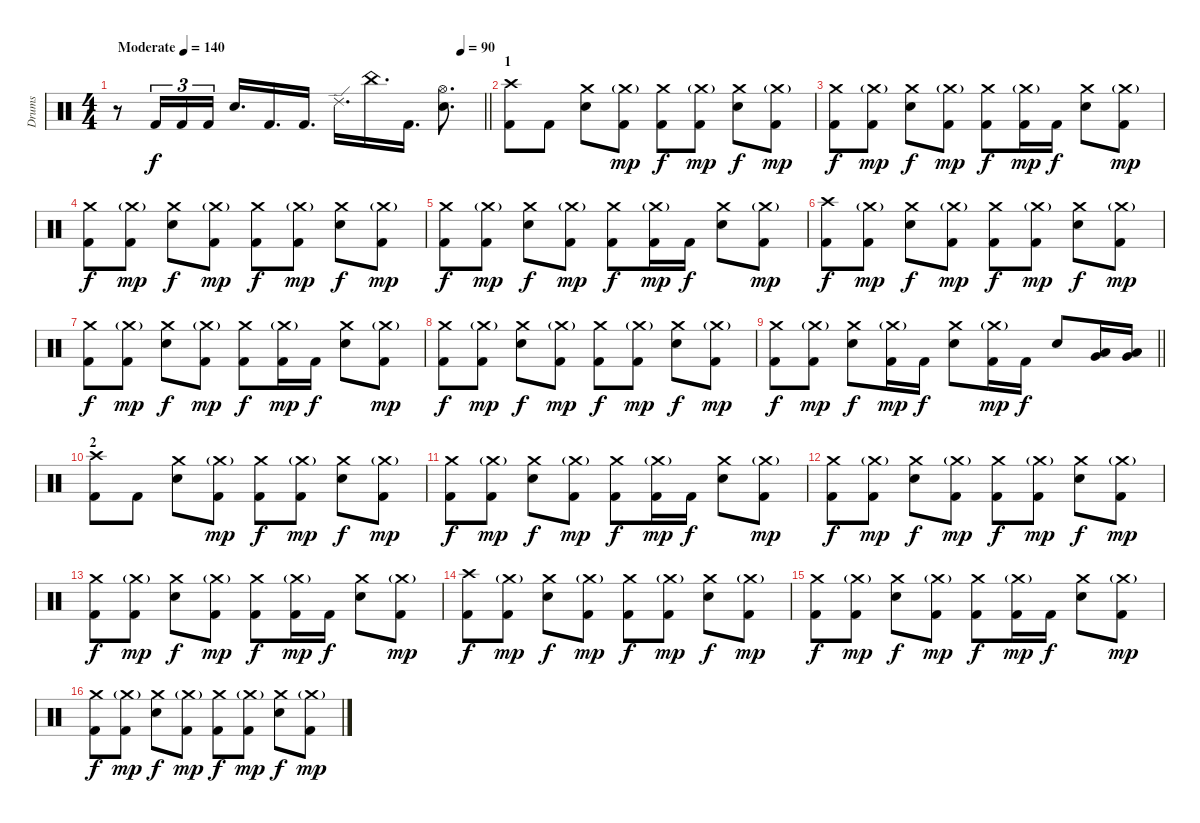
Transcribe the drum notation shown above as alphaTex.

\track ("Drums" "Drums") {instrument percussion}
\staff {score}
\articulation defaults
\ts (4 4)
\tempo (140 "Moderate")
\tempo (90 0.9375)
\tempo (140 "Moderate")
\clef neutral
\barLineRight lightlight
\ks c
r.8{dy f} "Kick (hit) 2".16{tu (3 2)} "Kick (hit) 2".16{tu (3 2)} "Kick (hit) 2".16{tu (3 2)} "Electric Snare (hit)".16{d} "Kick (hit) 2".16{d} "Kick (hit) 2".16{d} "Ride (edge) 2".16{d} "China (hit)".16{d} "Kick (hit) 2".16{d} ("Hi-Hat (open)" "Electric Snare (hit)").8{d} |
\section ("" "1")
("Crash high (hit)" "Kick (hit) 2").8 "Kick (hit) 2".8 ("Crash medium (hit)" "Electric Snare (hit)").8 ("Crash medium (hit)"{g} "Kick (hit) 2").8{dy mp} ("Crash medium (hit)" "Kick (hit) 2").8{dy f} ("Crash medium (hit)"{g} "Kick (hit) 2").8{dy mp} ("Crash medium (hit)" "Electric Snare (hit)").8{dy f} ("Crash medium (hit)"{g} "Kick (hit) 2").8{dy mp} |
("Crash medium (hit)" "Kick (hit) 2").8{dy f} ("Crash medium (hit)"{g} "Kick (hit) 2").8{dy mp} ("Crash medium (hit)" "Electric Snare (hit)").8{dy f} ("Crash medium (hit)"{g} "Kick (hit) 2").8{dy mp} ("Crash medium (hit)" "Kick (hit) 2").8{dy f} ("Crash medium (hit)"{g} "Kick (hit) 2").16{dy mp} "Kick (hit) 2".16{dy f} ("Crash medium (hit)" "Electric Snare (hit)").8 ("Crash medium (hit)"{g} "Kick (hit) 2").8{dy mp} |
("Crash medium (hit)" "Kick (hit) 2").8{dy f} ("Crash medium (hit)"{g} "Kick (hit) 2").8{dy mp} ("Crash medium (hit)" "Electric Snare (hit)").8{dy f} ("Crash medium (hit)"{g} "Kick (hit) 2").8{dy mp} ("Crash medium (hit)" "Kick (hit) 2").8{dy f} ("Crash medium (hit)"{g} "Kick (hit) 2").8{dy mp} ("Crash medium (hit)" "Electric Snare (hit)").8{dy f} ("Crash medium (hit)"{g} "Kick (hit) 2").8{dy mp} |
("Crash medium (hit)" "Kick (hit) 2").8{dy f} ("Crash medium (hit)"{g} "Kick (hit) 2").8{dy mp} ("Crash medium (hit)" "Electric Snare (hit)").8{dy f} ("Crash medium (hit)"{g} "Kick (hit) 2").8{dy mp} ("Crash medium (hit)" "Kick (hit) 2").8{dy f} ("Crash medium (hit)"{g} "Kick (hit) 2").16{dy mp} "Kick (hit) 2".16{dy f} ("Crash medium (hit)" "Electric Snare (hit)").8 ("Crash medium (hit)"{g} "Kick (hit) 2").8{dy mp} |
("Crash high (hit)" "Kick (hit) 2").8{dy f} ("Crash medium (hit)"{g} "Kick (hit) 2").8{dy mp} ("Crash medium (hit)" "Electric Snare (hit)").8{dy f} ("Crash medium (hit)"{g} "Kick (hit) 2").8{dy mp} ("Crash medium (hit)" "Kick (hit) 2").8{dy f} ("Crash medium (hit)"{g} "Kick (hit) 2").8{dy mp} ("Crash medium (hit)" "Electric Snare (hit)").8{dy f} ("Crash medium (hit)"{g} "Kick (hit) 2").8{dy mp} |
("Crash medium (hit)" "Kick (hit) 2").8{dy f} ("Crash medium (hit)"{g} "Kick (hit) 2").8{dy mp} ("Crash medium (hit)" "Electric Snare (hit)").8{dy f} ("Crash medium (hit)"{g} "Kick (hit) 2").8{dy mp} ("Crash medium (hit)" "Kick (hit) 2").8{dy f} ("Crash medium (hit)"{g} "Kick (hit) 2").16{dy mp} "Kick (hit) 2".16{dy f} ("Crash medium (hit)" "Electric Snare (hit)").8 ("Crash medium (hit)"{g} "Kick (hit) 2").8{dy mp} |
("Crash medium (hit)" "Kick (hit) 2").8{dy f} ("Crash medium (hit)"{g} "Kick (hit) 2").8{dy mp} ("Crash medium (hit)" "Electric Snare (hit)").8{dy f} ("Crash medium (hit)"{g} "Kick (hit) 2").8{dy mp} ("Crash medium (hit)" "Kick (hit) 2").8{dy f} ("Crash medium (hit)"{g} "Kick (hit) 2").8{dy mp} ("Crash medium (hit)" "Electric Snare (hit)").8{dy f} ("Crash medium (hit)"{g} "Kick (hit) 2").8{dy mp} |
\barLineRight lightlight
("Crash medium (hit)" "Kick (hit) 2").8{dy f} ("Crash medium (hit)"{g} "Kick (hit) 2").8{dy mp} ("Crash medium (hit)" "Electric Snare (hit)").8{dy f} ("Crash medium (hit)"{g} "Kick (hit) 2").16{dy mp} "Kick (hit) 2".16{dy f} ("Crash medium (hit)" "Electric Snare (hit)").8 ("Crash medium (hit)"{g} "Kick (hit) 2").16{dy mp} "Kick (hit) 2".16{dy f} "Electric Snare (hit)".8 ("Low Floor Tom (hit)" "Very Low Tom (hit)").16 ("Low Floor Tom (hit)" "Very Low Tom (hit)").16 |
\section ("" "2")
("Crash high (hit)" "Kick (hit) 2").8 "Kick (hit) 2".8 ("Crash medium (hit)" "Electric Snare (hit)").8 ("Crash medium (hit)"{g} "Kick (hit) 2").8{dy mp} ("Crash medium (hit)" "Kick (hit) 2").8{dy f} ("Crash medium (hit)"{g} "Kick (hit) 2").8{dy mp} ("Crash medium (hit)" "Electric Snare (hit)").8{dy f} ("Crash medium (hit)"{g} "Kick (hit) 2").8{dy mp} |
("Crash medium (hit)" "Kick (hit) 2").8{dy f} ("Crash medium (hit)"{g} "Kick (hit) 2").8{dy mp} ("Crash medium (hit)" "Electric Snare (hit)").8{dy f} ("Crash medium (hit)"{g} "Kick (hit) 2").8{dy mp} ("Crash medium (hit)" "Kick (hit) 2").8{dy f} ("Crash medium (hit)"{g} "Kick (hit) 2").16{dy mp} "Kick (hit) 2".16{dy f} ("Crash medium (hit)" "Electric Snare (hit)").8 ("Crash medium (hit)"{g} "Kick (hit) 2").8{dy mp} |
("Crash medium (hit)" "Kick (hit) 2").8{dy f} ("Crash medium (hit)"{g} "Kick (hit) 2").8{dy mp} ("Crash medium (hit)" "Electric Snare (hit)").8{dy f} ("Crash medium (hit)"{g} "Kick (hit) 2").8{dy mp} ("Crash medium (hit)" "Kick (hit) 2").8{dy f} ("Crash medium (hit)"{g} "Kick (hit) 2").8{dy mp} ("Crash medium (hit)" "Electric Snare (hit)").8{dy f} ("Crash medium (hit)"{g} "Kick (hit) 2").8{dy mp} |
("Crash medium (hit)" "Kick (hit) 2").8{dy f} ("Crash medium (hit)"{g} "Kick (hit) 2").8{dy mp} ("Crash medium (hit)" "Electric Snare (hit)").8{dy f} ("Crash medium (hit)"{g} "Kick (hit) 2").8{dy mp} ("Crash medium (hit)" "Kick (hit) 2").8{dy f} ("Crash medium (hit)"{g} "Kick (hit) 2").16{dy mp} "Kick (hit) 2".16{dy f} ("Crash medium (hit)" "Electric Snare (hit)").8 ("Crash medium (hit)"{g} "Kick (hit) 2").8{dy mp} |
("Crash high (hit)" "Kick (hit) 2").8{dy f} ("Crash medium (hit)"{g} "Kick (hit) 2").8{dy mp} ("Crash medium (hit)" "Electric Snare (hit)").8{dy f} ("Crash medium (hit)"{g} "Kick (hit) 2").8{dy mp} ("Crash medium (hit)" "Kick (hit) 2").8{dy f} ("Crash medium (hit)"{g} "Kick (hit) 2").8{dy mp} ("Crash medium (hit)" "Electric Snare (hit)").8{dy f} ("Crash medium (hit)"{g} "Kick (hit) 2").8{dy mp} |
("Crash medium (hit)" "Kick (hit) 2").8{dy f} ("Crash medium (hit)"{g} "Kick (hit) 2").8{dy mp} ("Crash medium (hit)" "Electric Snare (hit)").8{dy f} ("Crash medium (hit)"{g} "Kick (hit) 2").8{dy mp} ("Crash medium (hit)" "Kick (hit) 2").8{dy f} ("Crash medium (hit)"{g} "Kick (hit) 2").16{dy mp} "Kick (hit) 2".16{dy f} ("Crash medium (hit)" "Electric Snare (hit)").8 ("Crash medium (hit)"{g} "Kick (hit) 2").8{dy mp} |
("Crash medium (hit)" "Kick (hit) 2").8{dy f} ("Crash medium (hit)"{g} "Kick (hit) 2").8{dy mp} ("Crash medium (hit)" "Electric Snare (hit)").8{dy f} ("Crash medium (hit)"{g} "Kick (hit) 2").8{dy mp} ("Crash medium (hit)" "Kick (hit) 2").8{dy f} ("Crash medium (hit)"{g} "Kick (hit) 2").8{dy mp} ("Crash medium (hit)" "Electric Snare (hit)").8{dy f} ("Crash medium (hit)"{g} "Kick (hit) 2").8{dy mp}
